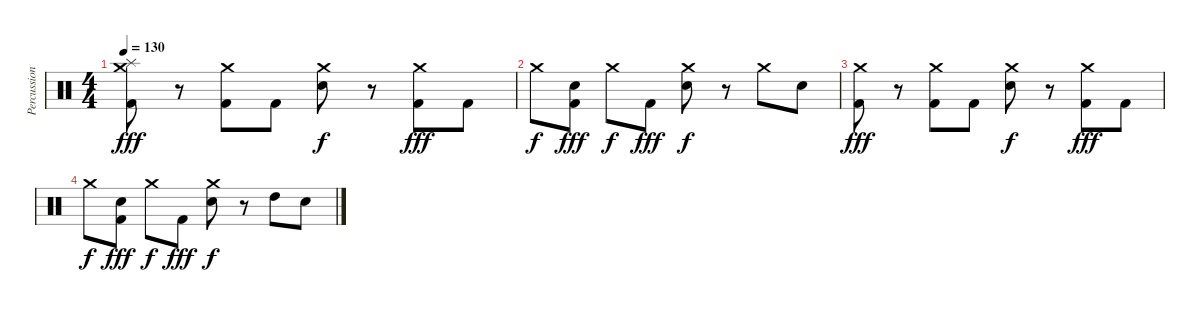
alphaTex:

\track ("Percussion" "Percussion") {instrument percussion}
\staff {score}
\articulation defaults
\ts (4 4)
\tempo 130
\clef neutral
\ks c
("Crash medium (hit)" "Splash (hit)" "Kick (hit) 2").8{dy fff} r.8 ("Crash medium (hit)" "Kick (hit) 2").8 "Kick (hit) 2".8 ("Crash medium (hit)" "Electric Snare (hit)").8{dy f} r.8 ("Crash medium (hit)" "Kick (hit) 2").8{dy fff} "Kick (hit) 2".8 |
"Crash medium (hit)".8{dy f} ("Electric Snare (hit)" "Kick (hit) 2").8{dy fff} "Crash medium (hit)".8{dy f} "Kick (hit) 2".8{dy fff} ("Crash medium (hit)" "Electric Snare (hit)").8{dy f} r.8 "Crash medium (hit)".8 "Electric Snare (hit)".8 |
("Crash medium (hit)" "Kick (hit) 2").8{dy fff} r.8 ("Crash medium (hit)" "Kick (hit) 2").8 "Kick (hit) 2".8 ("Crash medium (hit)" "Electric Snare (hit)").8{dy f} r.8 ("Crash medium (hit)" "Kick (hit) 2").8{dy fff} "Kick (hit) 2".8 |
"Crash medium (hit)".8{dy f} ("Electric Snare (hit)" "Kick (hit) 2").8{dy fff} "Crash medium (hit)".8{dy f} "Kick (hit) 2".8{dy fff} ("Crash medium (hit)" "Electric Snare (hit)").8{dy f} r.8 "High Tom (hit)".8 "Electric Snare (hit)".8
